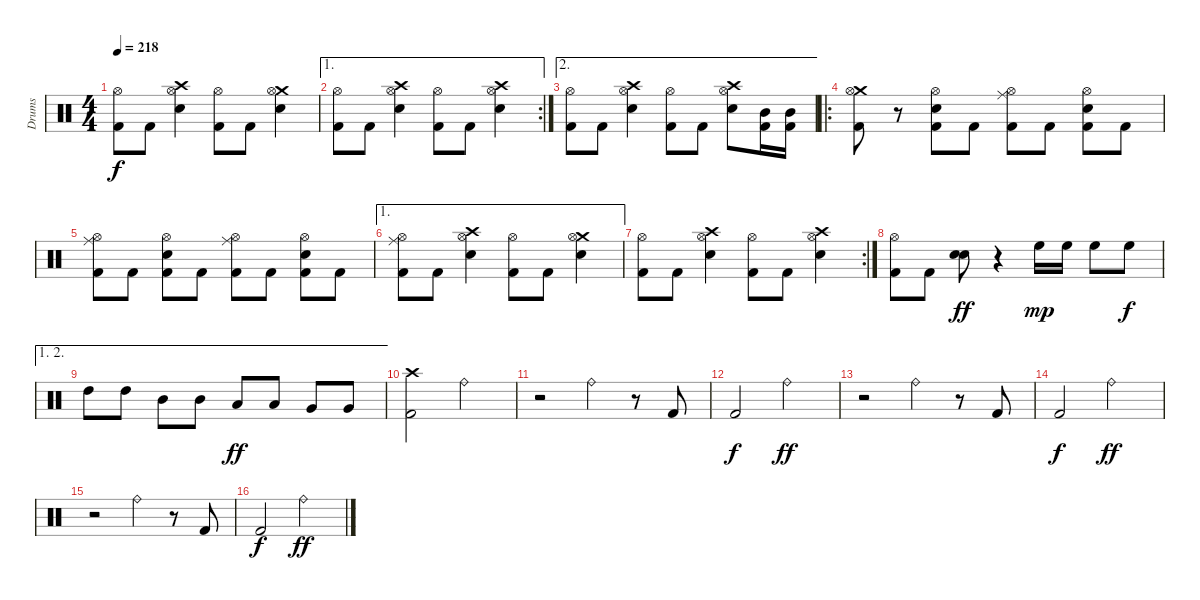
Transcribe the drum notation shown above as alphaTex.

\track ("Drums" "Drums") {instrument percussion}
\staff {score}
\articulation defaults
\ts (4 4)
\tempo 218
\clef neutral
\ks c
("Hi-Hat (open)" "Kick (hit) 2").8{dy f} "Kick (hit) 2".8 ("Crash high (hit)" "Hi-Hat (open)" "Electric Snare (hit)").4 ("Hi-Hat (open)" "Kick (hit) 2").8 "Kick (hit) 2".8 ("Crash medium (hit)" "Hi-Hat (open)" "Electric Snare (hit)").4 |
\ae 1
\rc 2
("Hi-Hat (open)" "Kick (hit) 2").8 "Kick (hit) 2".8 ("Crash high (hit)" "Hi-Hat (open)" "Electric Snare (hit)").4 ("Hi-Hat (open)" "Kick (hit) 2").8 "Kick (hit) 2".8 ("Crash high (hit)" "Hi-Hat (open)" "Electric Snare (hit)").4 |
\ae 2
("Hi-Hat (open)" "Kick (hit) 2").8 "Kick (hit) 2".8 ("Crash high (hit)" "Hi-Hat (open)" "Electric Snare (hit)").4 ("Hi-Hat (open)" "Kick (hit) 2").8 "Kick (hit) 2".8 ("Crash high (hit)" "Hi-Hat (open)" "Electric Snare (hit)").8 ("Mid Tom (hit)" "Kick (hit) 2").16 ("Mid Tom (hit)" "Kick (hit) 2").16 |
\ro
("Crash medium (hit)" "Hi-Hat (open)" "Kick (hit) 2").8 r.8 ("Hi-Hat (open)" "Electric Snare (hit)" "Kick (hit) 2").8 "Kick (hit) 2".8 ("Ride (middle)" "Hi-Hat (open)" "Kick (hit) 2").8 "Kick (hit) 2".8 ("Hi-Hat (open)" "Electric Snare (hit)" "Kick (hit) 2").8 "Kick (hit) 2".8 |
("Ride (middle)" "Hi-Hat (open)" "Kick (hit) 2").8 "Kick (hit) 2".8 ("Hi-Hat (open)" "Electric Snare (hit)" "Kick (hit) 2").8 "Kick (hit) 2".8 ("Ride (middle)" "Hi-Hat (open)" "Kick (hit) 2").8 "Kick (hit) 2".8 ("Hi-Hat (open)" "Electric Snare (hit)" "Kick (hit) 2").8 "Kick (hit) 2".8 |
\ae 1
("Ride (middle)" "Hi-Hat (open)" "Kick (hit) 2").8 "Kick (hit) 2".8 ("Crash high (hit)" "Hi-Hat (open)" "Electric Snare (hit)").4 ("Hi-Hat (open)" "Kick (hit) 2").8 "Kick (hit) 2".8 ("Crash medium (hit)" "Hi-Hat (open)" "Electric Snare (hit)").4 |
\rc 2
("Hi-Hat (open)" "Kick (hit) 2").8 "Kick (hit) 2".8 ("Crash high (hit)" "Hi-Hat (open)" "Electric Snare (hit)").4 ("Hi-Hat (open)" "Kick (hit) 2").8 "Kick (hit) 2".8 ("Crash high (hit)" "Hi-Hat (open)" "Electric Snare (hit)").4 |
("Hi-Hat (open)" "Kick (hit) 2").8 "Kick (hit) 2".8 ("Electric Snare (hit)" "Electric Snare (hit)").8{dy ff} r.4 "High Floor Tom (hit)".16{dy mp} "High Floor Tom (hit)".16 "High Floor Tom (hit)".8 "High Floor Tom (hit)".8{dy f} |
\ae (1 2)
"High Tom (hit)".8 "High Tom (hit)".8 "Mid Tom (hit)".8 "Mid Tom (hit)".8 "Low Tom (hit)".8{dy ff} "Low Tom (hit)".8 "Very Low Tom (hit)".8 "Very Low Tom (hit)".8 |
("Crash high (hit)" "Kick (hit) 2").2 "Ride (bell)".2 |
r.2 "Ride (bell)".4 r.8 "Kick (hit) 2".8 |
"Kick (hit) 2".2{dy f} "Ride (bell)".2{dy ff} |
r.2 "Ride (bell)".4 r.8 "Kick (hit) 2".8 |
"Kick (hit) 2".2{dy f} "Ride (bell)".2{dy ff} |
r.2 "Ride (bell)".4 r.8 "Kick (hit) 2".8 |
"Kick (hit) 2".2{dy f} "Ride (bell)".2{dy ff}
